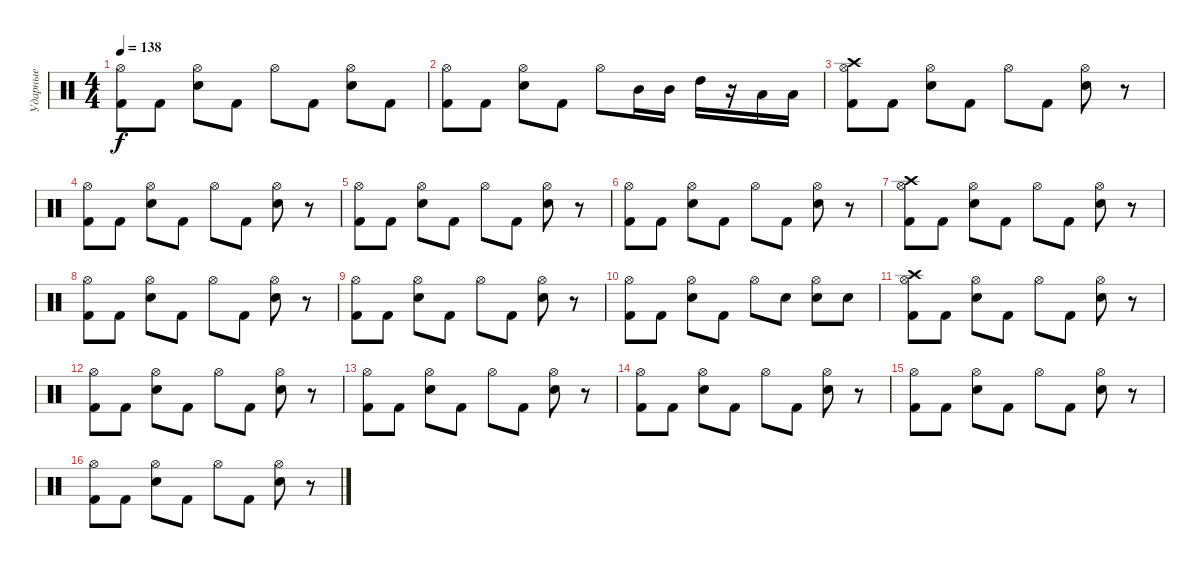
\track ("Ударные" "Ударные") {instrument percussion}
\staff {score}
\articulation defaults
\ts (4 4)
\tempo 138
\clef neutral
\ks c
("Hi-Hat (open)" "Kick (hit) 2").8{dy f} "Kick (hit) 2".8 ("Electric Snare (hit)" "Hi-Hat (open)").8 "Kick (hit) 2".8 "Hi-Hat (open)".8 "Kick (hit) 2".8 ("Electric Snare (hit)" "Hi-Hat (open)").8 "Kick (hit) 2".8 |
("Hi-Hat (open)" "Kick (hit) 2").8 "Kick (hit) 2".8 ("Electric Snare (hit)" "Hi-Hat (open)").8 "Kick (hit) 2".8 "Hi-Hat (open)".8 "Mid Tom (hit)".16 "Mid Tom (hit)".16 "High Tom (hit)".16 r.16 "Low Tom (hit)".16 "Low Tom (hit)".16 |
("Crash high (hit)" "Hi-Hat (open)" "Kick (hit) 2").8 "Kick (hit) 2".8 ("Electric Snare (hit)" "Hi-Hat (open)").8 "Kick (hit) 2".8 "Hi-Hat (open)".8 "Kick (hit) 2".8 ("Electric Snare (hit)" "Hi-Hat (open)").8 r.8 |
("Hi-Hat (open)" "Kick (hit) 2").8 "Kick (hit) 2".8 ("Electric Snare (hit)" "Hi-Hat (open)").8 "Kick (hit) 2".8 "Hi-Hat (open)".8 "Kick (hit) 2".8 ("Electric Snare (hit)" "Hi-Hat (open)").8 r.8 |
("Hi-Hat (open)" "Kick (hit) 2").8 "Kick (hit) 2".8 ("Electric Snare (hit)" "Hi-Hat (open)").8 "Kick (hit) 2".8 "Hi-Hat (open)".8 "Kick (hit) 2".8 ("Electric Snare (hit)" "Hi-Hat (open)").8 r.8 |
("Hi-Hat (open)" "Kick (hit) 2").8 "Kick (hit) 2".8 ("Electric Snare (hit)" "Hi-Hat (open)").8 "Kick (hit) 2".8 "Hi-Hat (open)".8 "Kick (hit) 2".8 ("Electric Snare (hit)" "Hi-Hat (open)").8 r.8 |
("Crash high (hit)" "Hi-Hat (open)" "Kick (hit) 2").8 "Kick (hit) 2".8 ("Electric Snare (hit)" "Hi-Hat (open)").8 "Kick (hit) 2".8 "Hi-Hat (open)".8 "Kick (hit) 2".8 ("Electric Snare (hit)" "Hi-Hat (open)").8 r.8 |
("Hi-Hat (open)" "Kick (hit) 2").8 "Kick (hit) 2".8 ("Electric Snare (hit)" "Hi-Hat (open)").8 "Kick (hit) 2".8 "Hi-Hat (open)".8 "Kick (hit) 2".8 ("Electric Snare (hit)" "Hi-Hat (open)").8 r.8 |
("Hi-Hat (open)" "Kick (hit) 2").8 "Kick (hit) 2".8 ("Electric Snare (hit)" "Hi-Hat (open)").8 "Kick (hit) 2".8 "Hi-Hat (open)".8 "Kick (hit) 2".8 ("Electric Snare (hit)" "Hi-Hat (open)").8 r.8 |
("Hi-Hat (open)" "Kick (hit) 2").8 "Kick (hit) 2".8 ("Electric Snare (hit)" "Hi-Hat (open)").8 "Kick (hit) 2".8 "Hi-Hat (open)".8 "Electric Snare (hit)".8 ("Electric Snare (hit)" "Hi-Hat (open)").8 "Electric Snare (hit)".8 |
("Crash high (hit)" "Hi-Hat (open)" "Kick (hit) 2").8 "Kick (hit) 2".8 ("Electric Snare (hit)" "Hi-Hat (open)").8 "Kick (hit) 2".8 "Hi-Hat (open)".8 "Kick (hit) 2".8 ("Electric Snare (hit)" "Hi-Hat (open)").8 r.8 |
("Hi-Hat (open)" "Kick (hit) 2").8 "Kick (hit) 2".8 ("Electric Snare (hit)" "Hi-Hat (open)").8 "Kick (hit) 2".8 "Hi-Hat (open)".8 "Kick (hit) 2".8 ("Electric Snare (hit)" "Hi-Hat (open)").8 r.8 |
("Hi-Hat (open)" "Kick (hit) 2").8 "Kick (hit) 2".8 ("Electric Snare (hit)" "Hi-Hat (open)").8 "Kick (hit) 2".8 "Hi-Hat (open)".8 "Kick (hit) 2".8 ("Electric Snare (hit)" "Hi-Hat (open)").8 r.8 |
("Hi-Hat (open)" "Kick (hit) 2").8 "Kick (hit) 2".8 ("Electric Snare (hit)" "Hi-Hat (open)").8 "Kick (hit) 2".8 "Hi-Hat (open)".8 "Kick (hit) 2".8 ("Electric Snare (hit)" "Hi-Hat (open)").8 r.8 |
("Hi-Hat (open)" "Kick (hit) 2").8 "Kick (hit) 2".8 ("Electric Snare (hit)" "Hi-Hat (open)").8 "Kick (hit) 2".8 "Hi-Hat (open)".8 "Kick (hit) 2".8 ("Electric Snare (hit)" "Hi-Hat (open)").8 r.8 |
("Hi-Hat (open)" "Kick (hit) 2").8 "Kick (hit) 2".8 ("Electric Snare (hit)" "Hi-Hat (open)").8 "Kick (hit) 2".8 "Hi-Hat (open)".8 "Kick (hit) 2".8 ("Electric Snare (hit)" "Hi-Hat (open)").8 r.8
